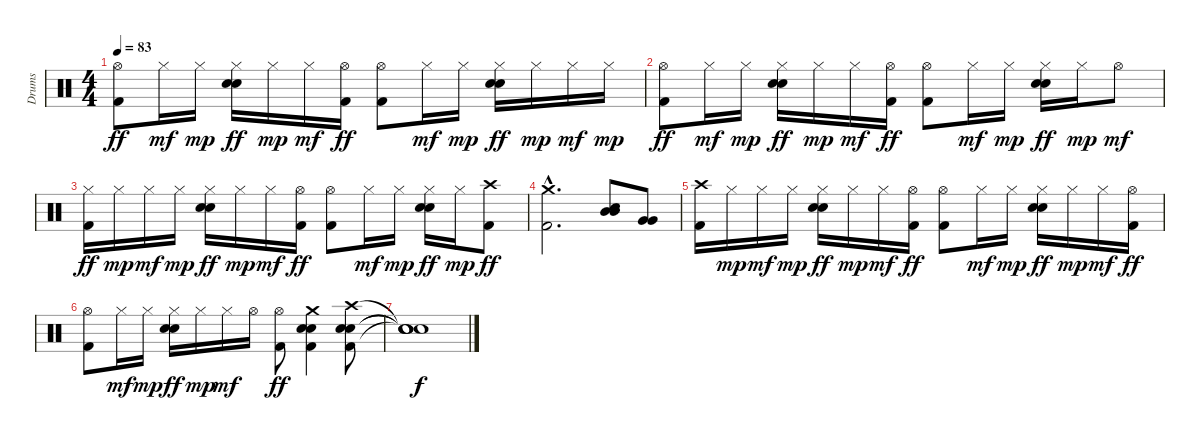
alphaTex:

\track ("Drums" "Drums") {instrument percussion}
\staff {score}
\articulation defaults
\ts (4 4)
\tempo 83
\clef neutral
\ks c
("Hi-Hat (open)" "Kick (hit) 2").8{dy ff} "Hi-Hat (closed)".16{dy mf} "Hi-Hat (closed)".16{dy mp} ("Hi-Hat (closed)" "Electric Snare (hit)" "Snare (hit) 2").16{dy ff} "Hi-Hat (closed)".16{dy mp} "Hi-Hat (closed)".16{dy mf} ("Hi-Hat (open)" "Kick (hit) 2").16{dy ff} ("Hi-Hat (open)" "Kick (hit) 2").8 "Hi-Hat (closed)".16{dy mf} "Hi-Hat (closed)".16{dy mp} ("Hi-Hat (closed)" "Electric Snare (hit)" "Snare (hit) 2").16{dy ff} "Hi-Hat (closed)".16{dy mp} "Hi-Hat (closed)".16{dy mf} "Hi-Hat (closed)".16{dy mp} |
("Hi-Hat (open)" "Kick (hit) 2").8{dy ff} "Hi-Hat (closed)".16{dy mf} "Hi-Hat (closed)".16{dy mp} ("Hi-Hat (closed)" "Electric Snare (hit)" "Snare (hit) 2").16{dy ff} "Hi-Hat (closed)".16{dy mp} "Hi-Hat (closed)".16{dy mf} ("Hi-Hat (open)" "Kick (hit) 2").16{dy ff} ("Hi-Hat (open)" "Kick (hit) 2").8 "Hi-Hat (closed)".16{dy mf} "Hi-Hat (closed)".16{dy mp} ("Hi-Hat (closed)" "Electric Snare (hit)" "Snare (hit) 2").16{dy ff} "Hi-Hat (closed)".16{dy mp} "Hi-Hat (open)".8{dy mf} |
("Hi-Hat (closed)" "Kick (hit) 2").16{dy ff} "Hi-Hat (closed)".16{dy mp} "Hi-Hat (closed)".16{dy mf} "Hi-Hat (closed)".16{dy mp} ("Hi-Hat (closed)" "Electric Snare (hit)" "Snare (hit) 2").16{dy ff} "Hi-Hat (closed)".16{dy mp} "Hi-Hat (closed)".16{dy mf} ("Hi-Hat (open)" "Kick (hit) 2").16{dy ff} ("Hi-Hat (open)" "Kick (hit) 2").8 "Hi-Hat (closed)".16{dy mf} "Hi-Hat (closed)".16{dy mp} ("Hi-Hat (closed)" "Electric Snare (hit)" "Snare (hit) 2").16{dy ff} "Hi-Hat (closed)".16{dy mp} ("Crash high (hit)" "Kick (hit) 2").8{dy ff} |
("Crash medium (hit)"{hac} "Kick (hit) 2"{hac}).2{d} ("Electric Snare (hit)" "Mid Tom (hit)" "Mid Tom (hit)").8 ("Very Low Tom (hit)" "Very Low Tom (hit)").8 |
("Crash high (hit)" "Kick (hit) 2").16 "Hi-Hat (closed)".16{dy mp} "Hi-Hat (closed)".16{dy mf} "Hi-Hat (closed)".16{dy mp} ("Hi-Hat (closed)" "Electric Snare (hit)" "Snare (hit) 2").16{dy ff} "Hi-Hat (closed)".16{dy mp} "Hi-Hat (closed)".16{dy mf} ("Hi-Hat (open)" "Kick (hit) 2").16{dy ff} ("Hi-Hat (open)" "Kick (hit) 2").8 "Hi-Hat (closed)".16{dy mf} "Hi-Hat (closed)".16{dy mp} ("Hi-Hat (closed)" "Electric Snare (hit)" "Snare (hit) 2").16{dy ff} "Hi-Hat (closed)".16{dy mp} "Hi-Hat (closed)".16{dy mf} ("Hi-Hat (open)" "Kick (hit) 2").16{dy ff} |
("Hi-Hat (open)" "Kick (hit) 2").8 "Hi-Hat (closed)".16{dy mf} "Hi-Hat (closed)".16{dy mp} ("Hi-Hat (closed)" "Electric Snare (hit)" "Snare (hit) 2").16{dy ff} "Hi-Hat (closed)".16{dy mp} "Hi-Hat (closed)".16{dy mf} "Hi-Hat (open)".16 ("Hi-Hat (open)" "Kick (hit) 2").8{dy ff} ("Crash medium (hit)" "Electric Snare (hit)" "Snare (hit) 2" "Kick (hit) 2").4 ("Crash high (hit)" "Electric Snare (hit)" "Snare (hit) 2" "Kick (hit) 2").8 |
("Snare (hit)"{t} "Snare (hit)"{t} "Snare (hit)"{t} "Snare (hit)"{t}).1{dy f}
